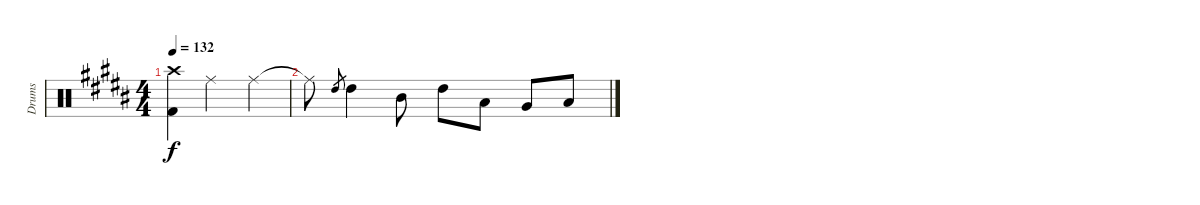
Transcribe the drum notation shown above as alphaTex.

\track ("Drums" "Drums") {instrument percussion}
\staff {score}
\articulation defaults
\ts (4 4)
\tempo 132
\clef neutral
\ks g#minor
("Crash high (hit)" "Kick (hit) 2").4{dy f} "Ride (middle)".2 "Ride (middle)".4 |
"Ride (middle)"{t}.8 "High Tom (hit)".8{gr} "High Tom (hit)".4 "Mid Tom (hit)".8 "High Tom (hit)".8 "Low Tom (hit)".8 "Very Low Tom (hit)".8 "Low Floor Tom (hit)".8
